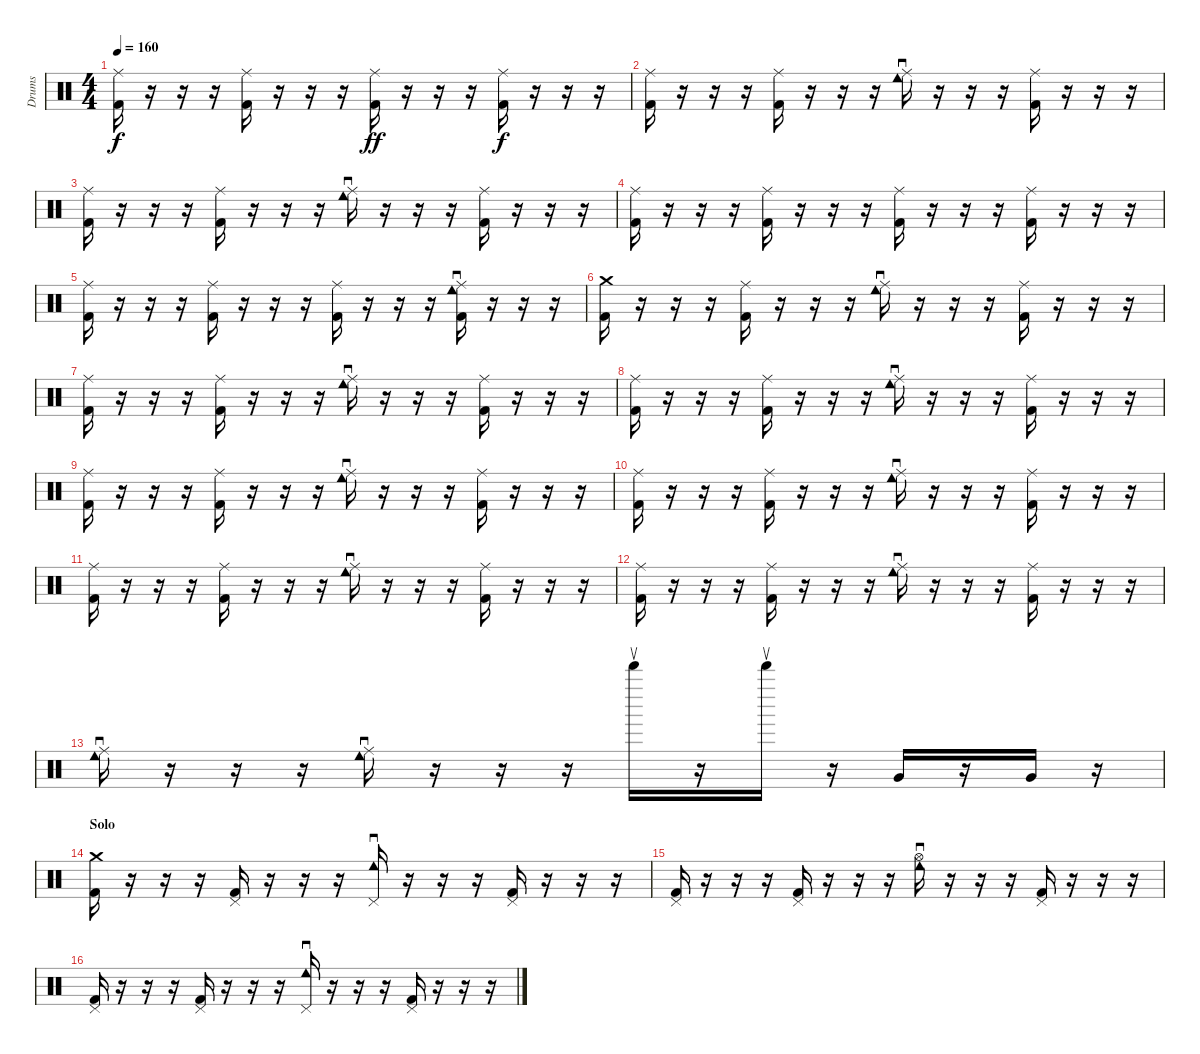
\track ("Drums" "Drums") {instrument percussion}
\staff {score}
\articulation defaults
\ts (4 4)
\tempo 160
\clef neutral
\ks c
("Ride (middle)" "Kick (hit) 2").16{dy f} r.16 r.16 r.16 ("Ride (middle)" "Kick (hit) 2").16 r.16 r.16 r.16 ("Ride (middle)" "Kick (hit) 2").16{dy ff} r.16 r.16 r.16 ("Ride (middle)" "Kick (hit) 2").16{dy f} r.16 r.16 r.16 |
("Ride (middle)" "Kick (hit) 2").16 r.16 r.16 r.16 ("Ride (middle)" "Kick (hit) 2").16 r.16 r.16 r.16 ("Ride (middle)" "Tambourine (roll)").16 r.16 r.16 r.16 ("Ride (middle)" "Kick (hit) 2").16 r.16 r.16 r.16 |
("Ride (middle)" "Kick (hit) 2").16 r.16 r.16 r.16 ("Ride (middle)" "Kick (hit) 2").16 r.16 r.16 r.16 ("Ride (middle)" "Tambourine (roll)").16 r.16 r.16 r.16 ("Ride (middle)" "Kick (hit) 2").16 r.16 r.16 r.16 |
("Ride (middle)" "Kick (hit) 2").16 r.16 r.16 r.16 ("Ride (middle)" "Kick (hit) 2").16 r.16 r.16 r.16 ("Ride (middle)" "Kick (hit) 2").16 r.16 r.16 r.16 ("Ride (middle)" "Kick (hit) 2").16 r.16 r.16 r.16 |
("Ride (middle)" "Kick (hit) 2").16 r.16 r.16 r.16 ("Ride (middle)" "Kick (hit) 2").16 r.16 r.16 r.16 ("Ride (middle)" "Kick (hit) 2").16 r.16 r.16 r.16 ("Ride (middle)" "Tambourine (roll)" "Kick (hit) 2").16 r.16 r.16 r.16 |
("Crash medium (hit)" "Kick (hit) 2").16 r.16 r.16 r.16 ("Ride (middle)" "Kick (hit) 2").16 r.16 r.16 r.16 ("Ride (middle)" "Tambourine (roll)").16 r.16 r.16 r.16 ("Ride (middle)" "Kick (hit) 2").16 r.16 r.16 r.16 |
("Ride (middle)" "Kick (hit) 2").16 r.16 r.16 r.16 ("Ride (middle)" "Kick (hit) 2").16 r.16 r.16 r.16 ("Ride (middle)" "Tambourine (roll)").16 r.16 r.16 r.16 ("Ride (middle)" "Kick (hit) 2").16 r.16 r.16 r.16 |
("Ride (middle)" "Kick (hit) 2").16 r.16 r.16 r.16 ("Ride (middle)" "Kick (hit) 2").16 r.16 r.16 r.16 ("Ride (middle)" "Tambourine (roll)").16 r.16 r.16 r.16 ("Ride (middle)" "Kick (hit) 2").16 r.16 r.16 r.16 |
("Ride (middle)" "Kick (hit) 2").16 r.16 r.16 r.16 ("Ride (middle)" "Kick (hit) 2").16 r.16 r.16 r.16 ("Ride (middle)" "Tambourine (roll)").16 r.16 r.16 r.16 ("Ride (middle)" "Kick (hit) 2").16 r.16 r.16 r.16 |
("Ride (middle)" "Kick (hit) 2").16 r.16 r.16 r.16 ("Ride (middle)" "Kick (hit) 2").16 r.16 r.16 r.16 ("Ride (middle)" "Tambourine (roll)").16 r.16 r.16 r.16 ("Ride (middle)" "Kick (hit) 2").16 r.16 r.16 r.16 |
("Ride (middle)" "Kick (hit) 2").16 r.16 r.16 r.16 ("Ride (middle)" "Kick (hit) 2").16 r.16 r.16 r.16 ("Ride (middle)" "Tambourine (roll)").16 r.16 r.16 r.16 ("Ride (middle)" "Kick (hit) 2").16 r.16 r.16 r.16 |
("Ride (middle)" "Kick (hit) 2").16 r.16 r.16 r.16 ("Ride (middle)" "Kick (hit) 2").16 r.16 r.16 r.16 ("Ride (middle)" "Tambourine (roll)").16 r.16 r.16 r.16 ("Ride (middle)" "Kick (hit) 2").16 r.16 r.16 r.16 |
("Ride (middle)" "Tambourine (roll)").16 r.16 r.16 r.16 ("Ride (middle)" "Tambourine (roll)").16 r.16 r.16 r.16 "Bell Tee (return)".16 r.16 "Bell Tee (return)".16 r.16 "Very Low Tom (hit)".16 r.16 "Very Low Tom (hit)".16 r.16 |
\section ("" "Solo")
("Crash medium (hit)" "Kick (hit) 2").16 r.16 r.16 r.16 ("Pedal Hi-Hat (hit)" "Kick (hit) 2").16 r.16 r.16 r.16 ("Pedal Hi-Hat (hit)" "Tambourine (roll)").16 r.16 r.16 r.16 ("Pedal Hi-Hat (hit)" "Kick (hit) 2").16 r.16 r.16 r.16 |
("Pedal Hi-Hat (hit)" "Kick (hit) 2").16 r.16 r.16 r.16 ("Pedal Hi-Hat (hit)" "Kick (hit) 2").16 r.16 r.16 r.16 ("Hi-Hat (open)" "Tambourine (roll)").16 r.16 r.16 r.16 ("Pedal Hi-Hat (hit)" "Kick (hit) 2").16 r.16 r.16 r.16 |
("Pedal Hi-Hat (hit)" "Kick (hit) 2").16 r.16 r.16 r.16 ("Pedal Hi-Hat (hit)" "Kick (hit) 2").16 r.16 r.16 r.16 ("Pedal Hi-Hat (hit)" "Tambourine (roll)").16 r.16 r.16 r.16 ("Pedal Hi-Hat (hit)" "Kick (hit) 2").16 r.16 r.16 r.16
